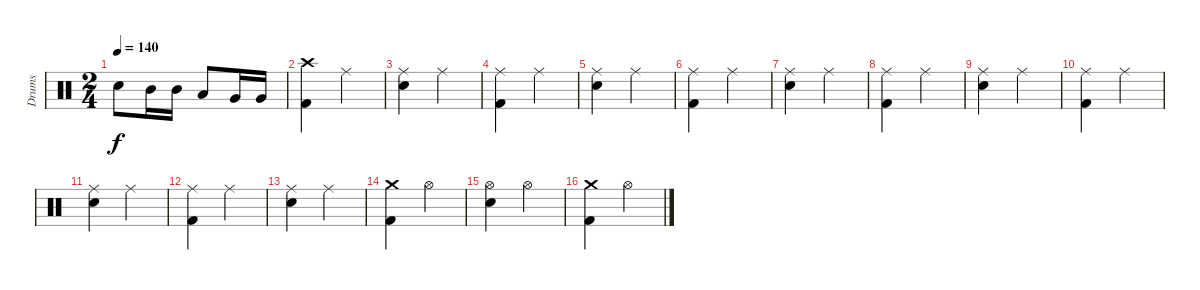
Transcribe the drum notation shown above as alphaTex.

\track ("Drums" "Drums") {instrument percussion}
\staff {score}
\articulation defaults
\ts (2 4)
\tempo 140
\clef neutral
\ks c "Electric Snare (hit)".8{dy f} "Mid Tom (hit)".16 "Mid Tom (hit)".16 "Low Tom (hit)".8 "Very Low Tom (hit)".16 "Very Low Tom (hit)".16
|
("Kick (hit) 2" "Crash high (hit)").4 "Ride (middle)".4 |
("Electric Snare (hit)" "Ride (middle)").4 "Ride (middle)".4 |
("Kick (hit) 2" "Ride (middle)").4 "Ride (middle)".4 |
("Electric Snare (hit)" "Ride (middle)").4 "Ride (middle)".4 |
("Kick (hit) 2" "Ride (middle)").4 "Ride (middle)".4 |
("Electric Snare (hit)" "Ride (middle)").4 "Ride (middle)".4 |
("Kick (hit) 2" "Ride (middle)").4 "Ride (middle)".4 |
("Electric Snare (hit)" "Ride (middle)").4 "Ride (middle)".4 |
("Kick (hit) 2" "Ride (middle)").4 "Ride (middle)".4 |
("Electric Snare (hit)" "Ride (middle)").4 "Ride (middle)".4 |
("Kick (hit) 2" "Ride (middle)").4 "Ride (middle)".4 |
("Electric Snare (hit)" "Ride (middle)").4 "Ride (middle)".4 |
("Kick (hit) 2" "Crash medium (hit)").4 "Hi-Hat (open)".4 |
("Electric Snare (hit)" "Hi-Hat (open)").4 "Hi-Hat (open)".4 |
("Kick (hit) 2" "Crash medium (hit)").4 "Hi-Hat (open)".4
